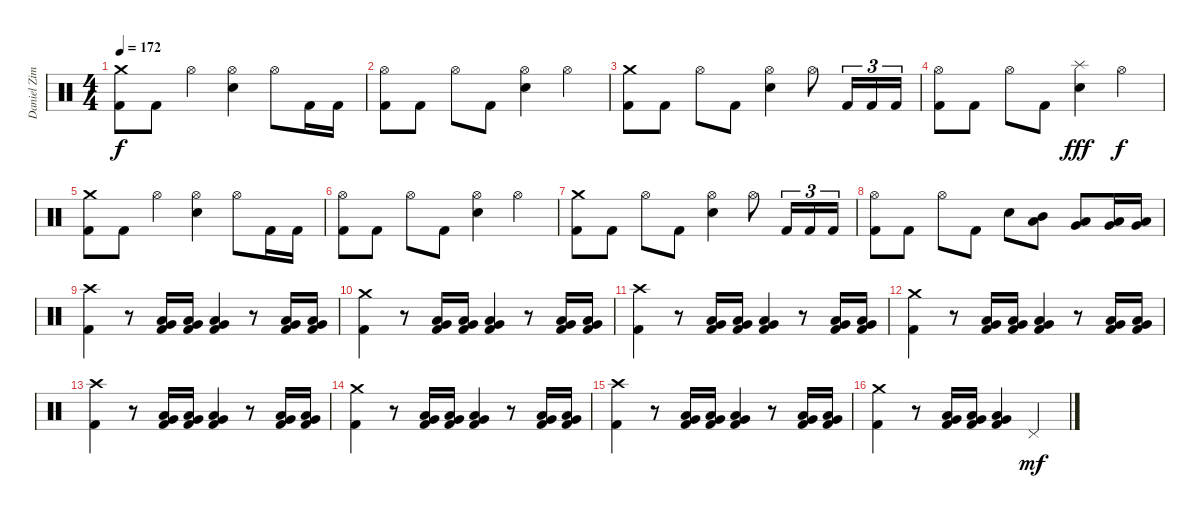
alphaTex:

\track ("Daniel Zimmermann - Drums" "Daniel Zim") {instrument percussion}
\staff {score}
\articulation defaults
\ts (4 4)
\tempo 172
\clef neutral
\ks c
("Kick (hit) 2" "Crash medium (hit)").8{dy f} "Kick (hit) 2".8 "Hi-Hat (open)".4 ("Electric Snare (hit)" "Hi-Hat (open)").4 "Hi-Hat (open)".8 "Kick (hit) 2".16 "Kick (hit) 2".16 |
("Kick (hit) 2" "Hi-Hat (open)").8 "Kick (hit) 2".8 "Hi-Hat (open)".8 "Kick (hit) 2".8 ("Electric Snare (hit)" "Hi-Hat (open)").4 "Hi-Hat (open)".4 |
("Kick (hit) 2" "Crash medium (hit)").8 "Kick (hit) 2".8 "Hi-Hat (open)".8 "Kick (hit) 2".8 ("Electric Snare (hit)" "Hi-Hat (open)").4 "Hi-Hat (open)".8 "Kick (hit) 2".16{tu (3 2)} "Kick (hit) 2".16{tu (3 2)} "Kick (hit) 2".16{tu (3 2)} |
("Kick (hit) 2" "Hi-Hat (open)").8 "Kick (hit) 2".8 "Hi-Hat (open)".8 "Kick (hit) 2".8 ("Electric Snare (hit)" "Splash (hit)").4{dy fff} "Hi-Hat (open)".4{dy f} |
("Kick (hit) 2" "Crash medium (hit)").8 "Kick (hit) 2".8 "Hi-Hat (open)".4 ("Electric Snare (hit)" "Hi-Hat (open)").4 "Hi-Hat (open)".8 "Kick (hit) 2".16 "Kick (hit) 2".16 |
("Kick (hit) 2" "Hi-Hat (open)").8 "Kick (hit) 2".8 "Hi-Hat (open)".8 "Kick (hit) 2".8 ("Electric Snare (hit)" "Hi-Hat (open)").4 "Hi-Hat (open)".4 |
("Kick (hit) 2" "Crash medium (hit)").8 "Kick (hit) 2".8 "Hi-Hat (open)".8 "Kick (hit) 2".8 ("Electric Snare (hit)" "Hi-Hat (open)").4 "Hi-Hat (open)".8 "Kick (hit) 2".16{tu (3 2)} "Kick (hit) 2".16{tu (3 2)} "Kick (hit) 2".16{tu (3 2)} |
("Kick (hit) 2" "Hi-Hat (open)").8 "Kick (hit) 2".8 "Hi-Hat (open)".8 "Kick (hit) 2".8 "Electric Snare (hit)".8 ("Mid Tom (hit)" "Low Tom (hit)").8 ("Low Tom (hit)" "Very Low Tom (hit)").8 ("Very Low Tom (hit)" "Low Floor Tom (hit)").16 ("Very Low Tom (hit)" "Low Floor Tom (hit)").16 |
("Kick (hit) 2" "Crash high (hit)").4 r.8 ("Kick (hit) 2" "Very Low Tom (hit)" "Low Floor Tom (hit)").16 ("Kick (hit) 2" "Very Low Tom (hit)" "Low Floor Tom (hit)").16 ("Kick (hit) 2" "Very Low Tom (hit)" "Low Floor Tom (hit)").4 r.8 ("Kick (hit) 2" "Very Low Tom (hit)" "Low Floor Tom (hit)").16 ("Kick (hit) 2" "Very Low Tom (hit)" "Low Floor Tom (hit)").16 |
("Kick (hit) 2" "Crash medium (hit)").4 r.8 ("Kick (hit) 2" "Very Low Tom (hit)" "Low Floor Tom (hit)").16 ("Kick (hit) 2" "Very Low Tom (hit)" "Low Floor Tom (hit)").16 ("Kick (hit) 2" "Very Low Tom (hit)" "Low Floor Tom (hit)").4 r.8 ("Kick (hit) 2" "Very Low Tom (hit)" "Low Floor Tom (hit)").16 ("Kick (hit) 2" "Very Low Tom (hit)" "Low Floor Tom (hit)").16 |
("Kick (hit) 2" "Crash high (hit)").4 r.8 ("Kick (hit) 2" "Very Low Tom (hit)" "Low Floor Tom (hit)").16 ("Kick (hit) 2" "Very Low Tom (hit)" "Low Floor Tom (hit)").16 ("Kick (hit) 2" "Very Low Tom (hit)" "Low Floor Tom (hit)").4 r.8 ("Kick (hit) 2" "Very Low Tom (hit)" "Low Floor Tom (hit)").16 ("Kick (hit) 2" "Very Low Tom (hit)" "Low Floor Tom (hit)").16 |
("Kick (hit) 2" "Crash medium (hit)").4 r.8 ("Kick (hit) 2" "Very Low Tom (hit)" "Low Floor Tom (hit)").16 ("Kick (hit) 2" "Very Low Tom (hit)" "Low Floor Tom (hit)").16 ("Kick (hit) 2" "Very Low Tom (hit)" "Low Floor Tom (hit)").4 r.8 ("Kick (hit) 2" "Very Low Tom (hit)" "Low Floor Tom (hit)").16 ("Kick (hit) 2" "Very Low Tom (hit)" "Low Floor Tom (hit)").16 |
("Kick (hit) 2" "Crash high (hit)").4 r.8 ("Kick (hit) 2" "Very Low Tom (hit)" "Low Floor Tom (hit)").16 ("Kick (hit) 2" "Very Low Tom (hit)" "Low Floor Tom (hit)").16 ("Kick (hit) 2" "Very Low Tom (hit)" "Low Floor Tom (hit)").4 r.8 ("Kick (hit) 2" "Very Low Tom (hit)" "Low Floor Tom (hit)").16 ("Kick (hit) 2" "Very Low Tom (hit)" "Low Floor Tom (hit)").16 |
("Kick (hit) 2" "Crash medium (hit)").4 r.8 ("Kick (hit) 2" "Very Low Tom (hit)" "Low Floor Tom (hit)").16 ("Kick (hit) 2" "Very Low Tom (hit)" "Low Floor Tom (hit)").16 ("Kick (hit) 2" "Very Low Tom (hit)" "Low Floor Tom (hit)").4 r.8 ("Kick (hit) 2" "Very Low Tom (hit)" "Low Floor Tom (hit)").16 ("Kick (hit) 2" "Very Low Tom (hit)" "Low Floor Tom (hit)").16 |
("Kick (hit) 2" "Crash high (hit)").4 r.8 ("Kick (hit) 2" "Very Low Tom (hit)" "Low Floor Tom (hit)").16 ("Kick (hit) 2" "Very Low Tom (hit)" "Low Floor Tom (hit)").16 ("Kick (hit) 2" "Very Low Tom (hit)" "Low Floor Tom (hit)").4 r.8 ("Kick (hit) 2" "Very Low Tom (hit)" "Low Floor Tom (hit)").16 ("Kick (hit) 2" "Very Low Tom (hit)" "Low Floor Tom (hit)").16 |
("Kick (hit) 2" "Crash medium (hit)").4 r.8 ("Kick (hit) 2" "Very Low Tom (hit)" "Low Floor Tom (hit)").16 ("Kick (hit) 2" "Very Low Tom (hit)" "Low Floor Tom (hit)").16 ("Kick (hit) 2" "Very Low Tom (hit)" "Low Floor Tom (hit)").4 "Pedal Hi-Hat (hit)".4{dy mf}
